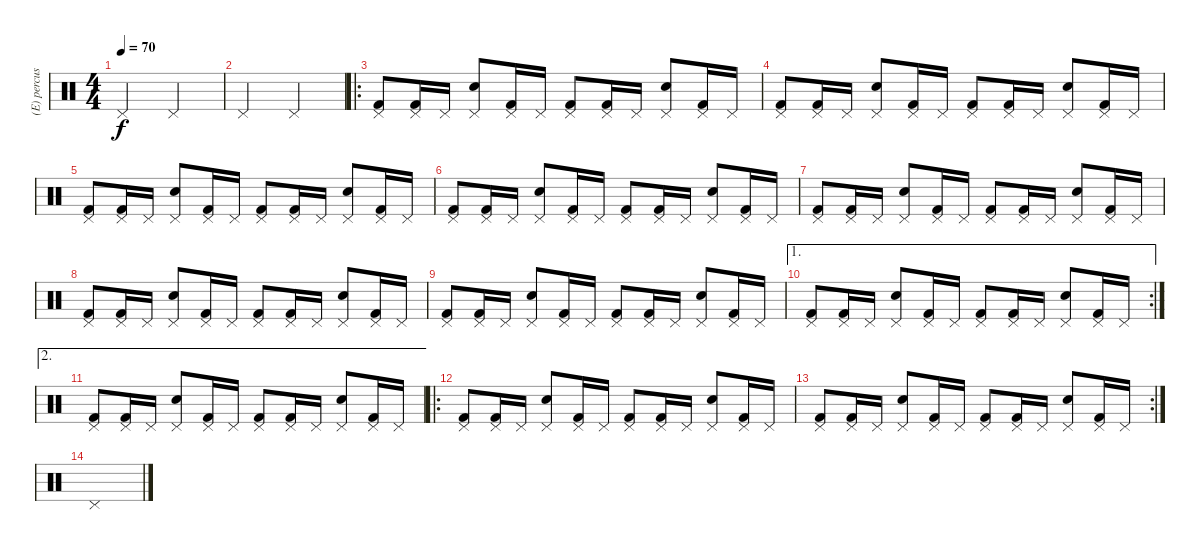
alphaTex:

\track ("(E) percussion" "(E) percus") {instrument percussion}
\staff {score}
\articulation defaults
\ts (4 4)
\tempo 70
\clef neutral
\ks c "Pedal Hi-Hat (hit)".2{dy f} "Pedal Hi-Hat (hit)".2
|
"Pedal Hi-Hat (hit)".2 "Pedal Hi-Hat (hit)".2 |
\ro
("Pedal Hi-Hat (hit)" "Kick (hit) 2").8 ("Pedal Hi-Hat (hit)" "Kick (hit) 2").16 "Pedal Hi-Hat (hit)".16 ("Pedal Hi-Hat (hit)" "Snare (hit) 2").8 ("Pedal Hi-Hat (hit)" "Kick (hit) 2").16 "Pedal Hi-Hat (hit)".16 ("Pedal Hi-Hat (hit)" "Kick (hit) 2").8 ("Pedal Hi-Hat (hit)" "Kick (hit) 2").16 "Pedal Hi-Hat (hit)".16 ("Pedal Hi-Hat (hit)" "Snare (hit) 2").8 ("Pedal Hi-Hat (hit)" "Kick (hit) 2").16 "Pedal Hi-Hat (hit)".16 |
("Pedal Hi-Hat (hit)" "Kick (hit) 2").8 ("Pedal Hi-Hat (hit)" "Kick (hit) 2").16 "Pedal Hi-Hat (hit)".16 ("Pedal Hi-Hat (hit)" "Snare (hit) 2").8 ("Pedal Hi-Hat (hit)" "Kick (hit) 2").16 "Pedal Hi-Hat (hit)".16 ("Pedal Hi-Hat (hit)" "Kick (hit) 2").8 ("Pedal Hi-Hat (hit)" "Kick (hit) 2").16 "Pedal Hi-Hat (hit)".16 ("Pedal Hi-Hat (hit)" "Snare (hit) 2").8 ("Pedal Hi-Hat (hit)" "Kick (hit) 2").16 "Pedal Hi-Hat (hit)".16 |
("Pedal Hi-Hat (hit)" "Kick (hit) 2").8 ("Pedal Hi-Hat (hit)" "Kick (hit) 2").16 "Pedal Hi-Hat (hit)".16 ("Pedal Hi-Hat (hit)" "Snare (hit) 2").8 ("Pedal Hi-Hat (hit)" "Kick (hit) 2").16 "Pedal Hi-Hat (hit)".16 ("Pedal Hi-Hat (hit)" "Kick (hit) 2").8 ("Pedal Hi-Hat (hit)" "Kick (hit) 2").16 "Pedal Hi-Hat (hit)".16 ("Pedal Hi-Hat (hit)" "Snare (hit) 2").8 ("Pedal Hi-Hat (hit)" "Kick (hit) 2").16 "Pedal Hi-Hat (hit)".16 |
("Pedal Hi-Hat (hit)" "Kick (hit) 2").8 ("Pedal Hi-Hat (hit)" "Kick (hit) 2").16 "Pedal Hi-Hat (hit)".16 ("Pedal Hi-Hat (hit)" "Snare (hit) 2").8 ("Pedal Hi-Hat (hit)" "Kick (hit) 2").16 "Pedal Hi-Hat (hit)".16 ("Pedal Hi-Hat (hit)" "Kick (hit) 2").8 ("Pedal Hi-Hat (hit)" "Kick (hit) 2").16 "Pedal Hi-Hat (hit)".16 ("Pedal Hi-Hat (hit)" "Snare (hit) 2").8 ("Pedal Hi-Hat (hit)" "Kick (hit) 2").16 "Pedal Hi-Hat (hit)".16 |
("Pedal Hi-Hat (hit)" "Kick (hit) 2").8 ("Pedal Hi-Hat (hit)" "Kick (hit) 2").16 "Pedal Hi-Hat (hit)".16 ("Pedal Hi-Hat (hit)" "Snare (hit) 2").8 ("Pedal Hi-Hat (hit)" "Kick (hit) 2").16 "Pedal Hi-Hat (hit)".16 ("Pedal Hi-Hat (hit)" "Kick (hit) 2").8 ("Pedal Hi-Hat (hit)" "Kick (hit) 2").16 "Pedal Hi-Hat (hit)".16 ("Pedal Hi-Hat (hit)" "Snare (hit) 2").8 ("Pedal Hi-Hat (hit)" "Kick (hit) 2").16 "Pedal Hi-Hat (hit)".16 |
("Pedal Hi-Hat (hit)" "Kick (hit) 2").8 ("Pedal Hi-Hat (hit)" "Kick (hit) 2").16 "Pedal Hi-Hat (hit)".16 ("Pedal Hi-Hat (hit)" "Snare (hit) 2").8 ("Pedal Hi-Hat (hit)" "Kick (hit) 2").16 "Pedal Hi-Hat (hit)".16 ("Pedal Hi-Hat (hit)" "Kick (hit) 2").8 ("Pedal Hi-Hat (hit)" "Kick (hit) 2").16 "Pedal Hi-Hat (hit)".16 ("Pedal Hi-Hat (hit)" "Snare (hit) 2").8 ("Pedal Hi-Hat (hit)" "Kick (hit) 2").16 "Pedal Hi-Hat (hit)".16 |
("Pedal Hi-Hat (hit)" "Kick (hit) 2").8 ("Pedal Hi-Hat (hit)" "Kick (hit) 2").16 "Pedal Hi-Hat (hit)".16 ("Pedal Hi-Hat (hit)" "Snare (hit) 2").8 ("Pedal Hi-Hat (hit)" "Kick (hit) 2").16 "Pedal Hi-Hat (hit)".16 ("Pedal Hi-Hat (hit)" "Kick (hit) 2").8 ("Pedal Hi-Hat (hit)" "Kick (hit) 2").16 "Pedal Hi-Hat (hit)".16 ("Pedal Hi-Hat (hit)" "Snare (hit) 2").8 ("Pedal Hi-Hat (hit)" "Kick (hit) 2").16 "Pedal Hi-Hat (hit)".16 |
\ae 1
\rc 2
("Pedal Hi-Hat (hit)" "Kick (hit) 2").8 ("Pedal Hi-Hat (hit)" "Kick (hit) 2").16 "Pedal Hi-Hat (hit)".16 ("Pedal Hi-Hat (hit)" "Snare (hit) 2").8 ("Pedal Hi-Hat (hit)" "Kick (hit) 2").16 "Pedal Hi-Hat (hit)".16 ("Pedal Hi-Hat (hit)" "Kick (hit) 2").8 ("Pedal Hi-Hat (hit)" "Kick (hit) 2").16 "Pedal Hi-Hat (hit)".16 ("Pedal Hi-Hat (hit)" "Snare (hit) 2").8 ("Pedal Hi-Hat (hit)" "Kick (hit) 2").16 "Pedal Hi-Hat (hit)".16 |
\ae 2
("Pedal Hi-Hat (hit)" "Kick (hit) 2").8 ("Pedal Hi-Hat (hit)" "Kick (hit) 2").16 "Pedal Hi-Hat (hit)".16 ("Pedal Hi-Hat (hit)" "Snare (hit) 2").8 ("Pedal Hi-Hat (hit)" "Kick (hit) 2").16 "Pedal Hi-Hat (hit)".16 ("Pedal Hi-Hat (hit)" "Kick (hit) 2").8 ("Pedal Hi-Hat (hit)" "Kick (hit) 2").16 "Pedal Hi-Hat (hit)".16 ("Pedal Hi-Hat (hit)" "Snare (hit) 2").8 ("Pedal Hi-Hat (hit)" "Kick (hit) 2").16 "Pedal Hi-Hat (hit)".16 |
\ro
("Pedal Hi-Hat (hit)" "Kick (hit) 2").8 ("Pedal Hi-Hat (hit)" "Kick (hit) 2").16 "Pedal Hi-Hat (hit)".16 ("Pedal Hi-Hat (hit)" "Snare (hit) 2").8 ("Pedal Hi-Hat (hit)" "Kick (hit) 2").16 "Pedal Hi-Hat (hit)".16 ("Pedal Hi-Hat (hit)" "Kick (hit) 2").8 ("Pedal Hi-Hat (hit)" "Kick (hit) 2").16 "Pedal Hi-Hat (hit)".16 ("Pedal Hi-Hat (hit)" "Snare (hit) 2").8 ("Pedal Hi-Hat (hit)" "Kick (hit) 2").16 "Pedal Hi-Hat (hit)".16 |
\rc 2
("Pedal Hi-Hat (hit)" "Kick (hit) 2").8 ("Pedal Hi-Hat (hit)" "Kick (hit) 2").16 "Pedal Hi-Hat (hit)".16 ("Pedal Hi-Hat (hit)" "Snare (hit) 2").8 ("Pedal Hi-Hat (hit)" "Kick (hit) 2").16 "Pedal Hi-Hat (hit)".16 ("Pedal Hi-Hat (hit)" "Kick (hit) 2").8 ("Pedal Hi-Hat (hit)" "Kick (hit) 2").16 "Pedal Hi-Hat (hit)".16 ("Pedal Hi-Hat (hit)" "Snare (hit) 2").8 ("Pedal Hi-Hat (hit)" "Kick (hit) 2").16 "Pedal Hi-Hat (hit)".16 |
"Pedal Hi-Hat (hit)".1
